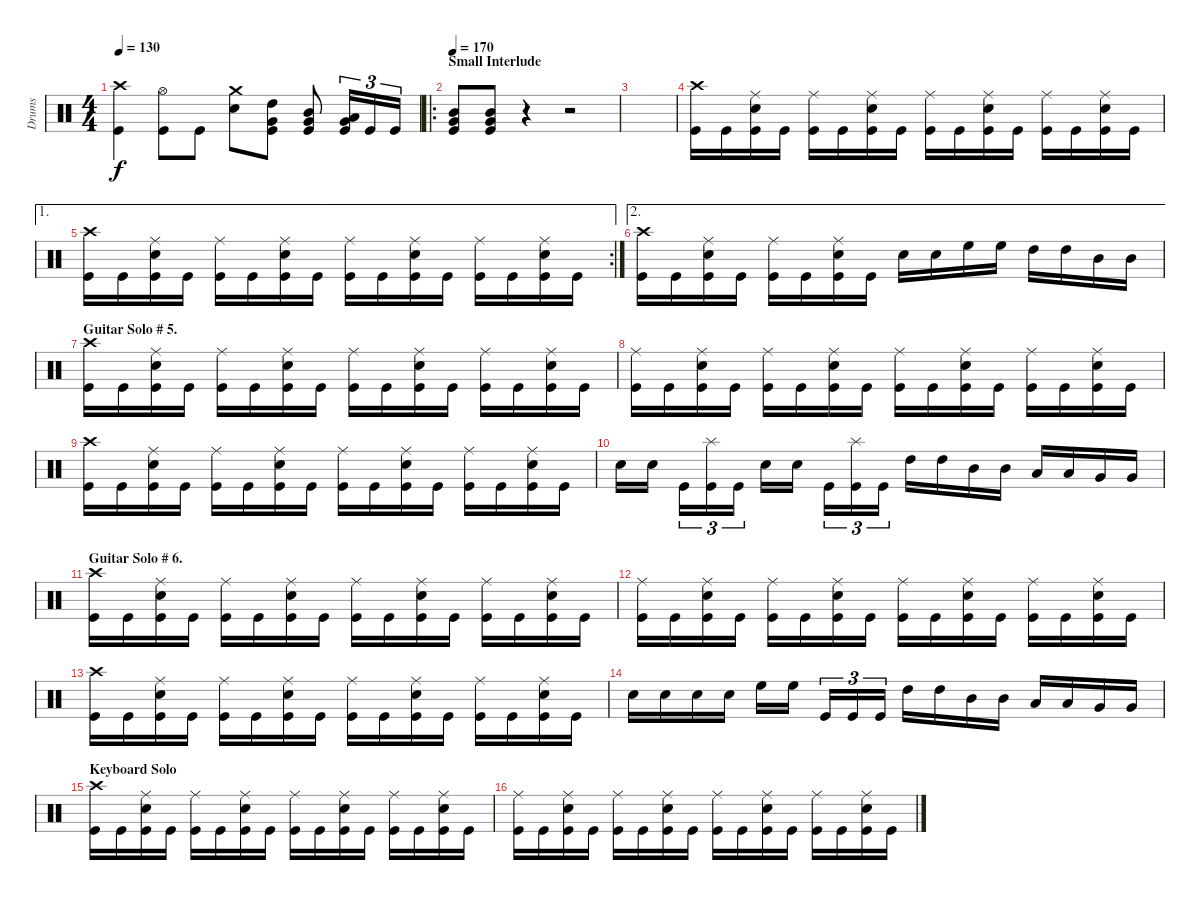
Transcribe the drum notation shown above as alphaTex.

\track ("Drums" "Drums") {instrument percussion}
\staff {score}
\articulation defaults
\ts (4 4)
\tempo 130
\clef neutral
\ks c
("Crash high (hit)" "Kick (hit)").4{dy f} ("Hi-Hat (open)" "Kick (hit)").8 "Kick (hit)".8 ("Crash medium (hit)" "Snare (hit) 2").8 ("High Tom (hit)" "Very Low Tom (hit)" "Kick (hit)").8 ("Mid Tom (hit)" "Very Low Tom (hit)" "Kick (hit)").8 ("Low Tom (hit)" "Very Low Tom (hit)" "Kick (hit)").16{tu (3 2)} "Kick (hit)".16{tu (3 2)} "Kick (hit)".16{tu (3 2)} |
\ro
\section ("" "Small Interlude")
\tempo 170
("Mid Tom (hit)" "Very Low Tom (hit)" "Kick (hit)").8 ("Mid Tom (hit)" "Very Low Tom (hit)" "Kick (hit)").8 r.4 r.2 |
|
("Crash high (hit)" "Kick (hit)").16 "Kick (hit)".16 ("Ride (middle)" "Snare (hit) 2" "Kick (hit)").16 "Kick (hit)".16 ("Ride (middle)" "Kick (hit)").16 "Kick (hit)".16 ("Ride (middle)" "Snare (hit) 2" "Kick (hit)").16 "Kick (hit)".16 ("Ride (middle)" "Kick (hit)").16 "Kick (hit)".16 ("Ride (middle)" "Snare (hit) 2" "Kick (hit)").16 "Kick (hit)".16 ("Ride (middle)" "Kick (hit)").16 "Kick (hit)".16 ("Ride (middle)" "Snare (hit) 2" "Kick (hit)").16 "Kick (hit)".16 |
\ae 1
\rc 2
("Crash high (hit)" "Kick (hit)").16 "Kick (hit)".16 ("Ride (middle)" "Snare (hit) 2" "Kick (hit)").16 "Kick (hit)".16 ("Ride (middle)" "Kick (hit)").16 "Kick (hit)".16 ("Ride (middle)" "Snare (hit) 2" "Kick (hit)").16 "Kick (hit)".16 ("Ride (middle)" "Kick (hit)").16 "Kick (hit)".16 ("Ride (middle)" "Snare (hit) 2" "Kick (hit)").16 "Kick (hit)".16 ("Ride (middle)" "Kick (hit)").16 "Kick (hit)".16 ("Ride (middle)" "Snare (hit) 2" "Kick (hit)").16 "Kick (hit)".16 |
\ae 2
("Crash high (hit)" "Kick (hit)").16 "Kick (hit)".16 ("Ride (middle)" "Snare (hit) 2" "Kick (hit)").16 "Kick (hit)".16 ("Ride (middle)" "Kick (hit)").16 "Kick (hit)".16 ("Ride (middle)" "Snare (hit) 2" "Kick (hit)").16 "Kick (hit)".16 "Snare (hit) 2".16 "Snare (hit) 2".16 "High Floor Tom (hit)".16 "High Floor Tom (hit)".16 "High Tom (hit)".16 "High Tom (hit)".16 "Mid Tom (hit)".16 "Mid Tom (hit)".16 |
\section ("" "Guitar Solo # 5.")
("Crash high (hit)" "Kick (hit)").16 "Kick (hit)".16 ("Ride (middle)" "Snare (hit) 2" "Kick (hit)").16 "Kick (hit)".16 ("Ride (middle)" "Kick (hit)").16 "Kick (hit)".16 ("Ride (middle)" "Snare (hit) 2" "Kick (hit)").16 "Kick (hit)".16 ("Ride (middle)" "Kick (hit)").16 "Kick (hit)".16 ("Ride (middle)" "Snare (hit) 2" "Kick (hit)").16 "Kick (hit)".16 ("Ride (middle)" "Kick (hit)").16 "Kick (hit)".16 ("Ride (middle)" "Snare (hit) 2" "Kick (hit)").16 "Kick (hit)".16 |
("Ride (middle)" "Kick (hit)").16 "Kick (hit)".16 ("Ride (middle)" "Snare (hit) 2" "Kick (hit)").16 "Kick (hit)".16 ("Ride (middle)" "Kick (hit)").16 "Kick (hit)".16 ("Ride (middle)" "Snare (hit) 2" "Kick (hit)").16 "Kick (hit)".16 ("Ride (middle)" "Kick (hit)").16 "Kick (hit)".16 ("Ride (middle)" "Snare (hit) 2" "Kick (hit)").16 "Kick (hit)".16 ("Ride (middle)" "Kick (hit)").16 "Kick (hit)".16 ("Ride (middle)" "Snare (hit) 2" "Kick (hit)").16 "Kick (hit)".16 |
("Crash high (hit)" "Kick (hit)").16 "Kick (hit)".16 ("Ride (middle)" "Snare (hit) 2" "Kick (hit)").16 "Kick (hit)".16 ("Ride (middle)" "Kick (hit)").16 "Kick (hit)".16 ("Ride (middle)" "Snare (hit) 2" "Kick (hit)").16 "Kick (hit)".16 ("Ride (middle)" "Kick (hit)").16 "Kick (hit)".16 ("Ride (middle)" "Snare (hit) 2" "Kick (hit)").16 "Kick (hit)".16 ("Ride (middle)" "Kick (hit)").16 "Kick (hit)".16 ("Ride (middle)" "Snare (hit) 2" "Kick (hit)").16 "Kick (hit)".16 |
"Snare (hit) 2".16 "Snare (hit) 2".16 "Kick (hit)".16{tu (3 2)} ("Splash (hit)" "Kick (hit)").16{tu (3 2)} "Kick (hit)".16{tu (3 2)} "Snare (hit) 2".16 "Snare (hit) 2".16 "Kick (hit)".16{tu (3 2)} ("Splash (hit)" "Kick (hit)").16{tu (3 2)} "Kick (hit)".16{tu (3 2)} "High Tom (hit)".16 "High Tom (hit)".16 "Mid Tom (hit)".16 "Mid Tom (hit)".16 "Low Tom (hit)".16 "Low Tom (hit)".16 "Very Low Tom (hit)".16 "Very Low Tom (hit)".16 |
\section ("" "Guitar Solo # 6.")
("Crash high (hit)" "Kick (hit)").16 "Kick (hit)".16 ("Ride (middle)" "Snare (hit) 2" "Kick (hit)").16 "Kick (hit)".16 ("Ride (middle)" "Kick (hit)").16 "Kick (hit)".16 ("Ride (middle)" "Snare (hit) 2" "Kick (hit)").16 "Kick (hit)".16 ("Ride (middle)" "Kick (hit)").16 "Kick (hit)".16 ("Ride (middle)" "Snare (hit) 2" "Kick (hit)").16 "Kick (hit)".16 ("Ride (middle)" "Kick (hit)").16 "Kick (hit)".16 ("Ride (middle)" "Snare (hit) 2" "Kick (hit)").16 "Kick (hit)".16 |
("Ride (middle)" "Kick (hit)").16 "Kick (hit)".16 ("Ride (middle)" "Snare (hit) 2" "Kick (hit)").16 "Kick (hit)".16 ("Ride (middle)" "Kick (hit)").16 "Kick (hit)".16 ("Ride (middle)" "Snare (hit) 2" "Kick (hit)").16 "Kick (hit)".16 ("Ride (middle)" "Kick (hit)").16 "Kick (hit)".16 ("Ride (middle)" "Snare (hit) 2" "Kick (hit)").16 "Kick (hit)".16 ("Ride (middle)" "Kick (hit)").16 "Kick (hit)".16 ("Ride (middle)" "Snare (hit) 2" "Kick (hit)").16 "Kick (hit)".16 |
("Crash high (hit)" "Kick (hit)").16 "Kick (hit)".16 ("Ride (middle)" "Snare (hit) 2" "Kick (hit)").16 "Kick (hit)".16 ("Ride (middle)" "Kick (hit)").16 "Kick (hit)".16 ("Ride (middle)" "Snare (hit) 2" "Kick (hit)").16 "Kick (hit)".16 ("Ride (middle)" "Kick (hit)").16 "Kick (hit)".16 ("Ride (middle)" "Snare (hit) 2" "Kick (hit)").16 "Kick (hit)".16 ("Ride (middle)" "Kick (hit)").16 "Kick (hit)".16 ("Ride (middle)" "Snare (hit) 2" "Kick (hit)").16 "Kick (hit)".16 |
"Snare (hit) 2".16 "Snare (hit) 2".16 "Snare (hit) 2".16 "Snare (hit) 2".16 "High Floor Tom (hit)".16 "High Floor Tom (hit)".16 "Kick (hit)".16{tu (3 2)} "Kick (hit)".16{tu (3 2)} "Kick (hit)".16{tu (3 2)} "High Tom (hit)".16 "High Tom (hit)".16 "Mid Tom (hit)".16 "Mid Tom (hit)".16 "Low Tom (hit)".16 "Low Tom (hit)".16 "Very Low Tom (hit)".16 "Very Low Tom (hit)".16 |
\section ("" "Keyboard Solo")
("Crash high (hit)" "Kick (hit)").16 "Kick (hit)".16 ("Ride (middle)" "Snare (hit) 2" "Kick (hit)").16 "Kick (hit)".16 ("Ride (middle)" "Kick (hit)").16 "Kick (hit)".16 ("Ride (middle)" "Snare (hit) 2" "Kick (hit)").16 "Kick (hit)".16 ("Ride (middle)" "Kick (hit)").16 "Kick (hit)".16 ("Ride (middle)" "Snare (hit) 2" "Kick (hit)").16 "Kick (hit)".16 ("Ride (middle)" "Kick (hit)").16 "Kick (hit)".16 ("Ride (middle)" "Snare (hit) 2" "Kick (hit)").16 "Kick (hit)".16 |
("Ride (middle)" "Kick (hit)").16 "Kick (hit)".16 ("Ride (middle)" "Snare (hit) 2" "Kick (hit)").16 "Kick (hit)".16 ("Ride (middle)" "Kick (hit)").16 "Kick (hit)".16 ("Ride (middle)" "Snare (hit) 2" "Kick (hit)").16 "Kick (hit)".16 ("Ride (middle)" "Kick (hit)").16 "Kick (hit)".16 ("Ride (middle)" "Snare (hit) 2" "Kick (hit)").16 "Kick (hit)".16 ("Ride (middle)" "Kick (hit)").16 "Kick (hit)".16 ("Ride (middle)" "Snare (hit) 2" "Kick (hit)").16 "Kick (hit)".16
